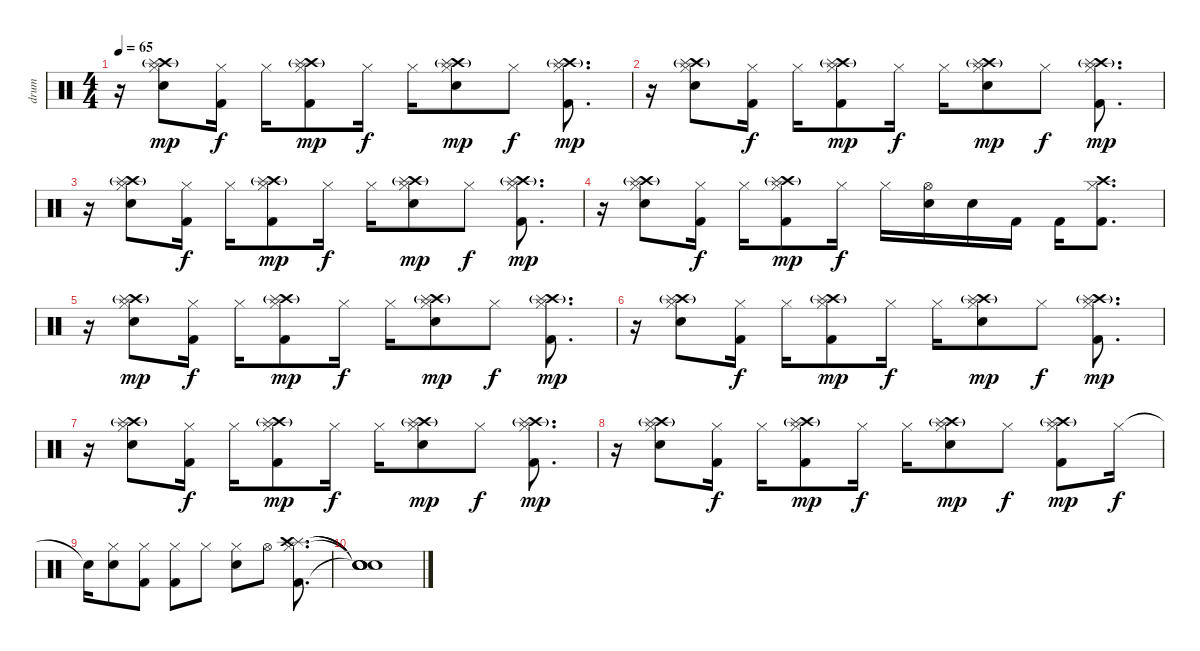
\track ("drum" "drum") {instrument percussion}
\staff {score}
\articulation defaults
\ts (4 4)
\tempo 65
\clef neutral
\ks c
r.16{dy f} ("Crash high (hit)"{g} "Hi-Hat (closed)" "Splash (hit)" "Electric Snare (hit)").8{dy mp} ("Hi-Hat (closed)" "Kick (hit) 2").16{dy f} "Hi-Hat (closed)".16 ("Crash high (hit)"{g} "Hi-Hat (closed)" "Splash (hit)" "Kick (hit) 2").8{dy mp} "Hi-Hat (closed)".16{dy f} "Hi-Hat (closed)".16 ("Crash high (hit)"{g} "Hi-Hat (closed)" "Splash (hit)" "Electric Snare (hit)").8{dy mp} "Hi-Hat (closed)".8{dy f} ("Crash high (hit)"{g} "Hi-Hat (closed)" "Splash (hit)" "Kick (hit) 2").8{d dy mp} |
r.16 ("Crash high (hit)"{g} "Hi-Hat (closed)" "Splash (hit)" "Electric Snare (hit)").8 ("Hi-Hat (closed)" "Kick (hit) 2").16{dy f} "Hi-Hat (closed)".16 ("Crash high (hit)"{g} "Hi-Hat (closed)" "Splash (hit)" "Kick (hit) 2").8{dy mp} "Hi-Hat (closed)".16{dy f} "Hi-Hat (closed)".16 ("Crash high (hit)"{g} "Hi-Hat (closed)" "Splash (hit)" "Electric Snare (hit)").8{dy mp} "Hi-Hat (closed)".8{dy f} ("Crash high (hit)"{g} "Hi-Hat (closed)" "Splash (hit)" "Kick (hit) 2").8{d dy mp} |
r.16 ("Crash high (hit)"{g} "Hi-Hat (closed)" "Splash (hit)" "Electric Snare (hit)").8 ("Hi-Hat (closed)" "Kick (hit) 2").16{dy f} "Hi-Hat (closed)".16 ("Crash high (hit)"{g} "Hi-Hat (closed)" "Splash (hit)" "Kick (hit) 2").8{dy mp} "Hi-Hat (closed)".16{dy f} "Hi-Hat (closed)".16 ("Crash high (hit)"{g} "Hi-Hat (closed)" "Splash (hit)" "Electric Snare (hit)").8{dy mp} "Hi-Hat (closed)".8{dy f} ("Crash high (hit)"{g} "Hi-Hat (closed)" "Splash (hit)" "Kick (hit) 2").8{d dy mp} |
r.16 ("Crash high (hit)"{g} "Hi-Hat (closed)" "Splash (hit)" "Electric Snare (hit)").8 ("Hi-Hat (closed)" "Kick (hit) 2").16{dy f} "Hi-Hat (closed)".16 ("Crash high (hit)"{g} "Hi-Hat (closed)" "Splash (hit)" "Kick (hit) 2").8{dy mp} "Hi-Hat (closed)".16{dy f} "Hi-Hat (closed)".16 ("Hi-Hat (open)" "Electric Snare (hit)").16 "Electric Snare (hit)".16 "Kick (hit) 2".16 "Kick (hit) 2".16 ("Crash high (hit)" "Hi-Hat (closed)" "Kick (hit) 2").8{d} |
r.16 ("Crash high (hit)"{g} "Hi-Hat (closed)" "Splash (hit)" "Electric Snare (hit)").8{dy mp} ("Hi-Hat (closed)" "Kick (hit) 2").16{dy f} "Hi-Hat (closed)".16 ("Crash high (hit)"{g} "Hi-Hat (closed)" "Splash (hit)" "Kick (hit) 2").8{dy mp} "Hi-Hat (closed)".16{dy f} "Hi-Hat (closed)".16 ("Crash high (hit)"{g} "Hi-Hat (closed)" "Splash (hit)" "Electric Snare (hit)").8{dy mp} "Hi-Hat (closed)".8{dy f} ("Crash high (hit)"{g} "Hi-Hat (closed)" "Splash (hit)" "Kick (hit) 2").8{d dy mp} |
r.16 ("Crash high (hit)"{g} "Hi-Hat (closed)" "Splash (hit)" "Electric Snare (hit)").8 ("Hi-Hat (closed)" "Kick (hit) 2").16{dy f} "Hi-Hat (closed)".16 ("Crash high (hit)"{g} "Hi-Hat (closed)" "Splash (hit)" "Kick (hit) 2").8{dy mp} "Hi-Hat (closed)".16{dy f} "Hi-Hat (closed)".16 ("Crash high (hit)"{g} "Hi-Hat (closed)" "Splash (hit)" "Electric Snare (hit)").8{dy mp} "Hi-Hat (closed)".8{dy f} ("Crash high (hit)"{g} "Hi-Hat (closed)" "Splash (hit)" "Kick (hit) 2").8{d dy mp} |
r.16 ("Crash high (hit)"{g} "Hi-Hat (closed)" "Splash (hit)" "Electric Snare (hit)").8 ("Hi-Hat (closed)" "Kick (hit) 2").16{dy f} "Hi-Hat (closed)".16 ("Crash high (hit)"{g} "Hi-Hat (closed)" "Splash (hit)" "Kick (hit) 2").8{dy mp} "Hi-Hat (closed)".16{dy f} "Hi-Hat (closed)".16 ("Crash high (hit)"{g} "Hi-Hat (closed)" "Splash (hit)" "Electric Snare (hit)").8{dy mp} "Hi-Hat (closed)".8{dy f} ("Crash high (hit)"{g} "Hi-Hat (closed)" "Splash (hit)" "Kick (hit) 2").8{d dy mp} |
r.16 ("Crash high (hit)"{g} "Hi-Hat (closed)" "Splash (hit)" "Electric Snare (hit)").8 ("Hi-Hat (closed)" "Kick (hit) 2").16{dy f} "Hi-Hat (closed)".16 ("Crash high (hit)"{g} "Hi-Hat (closed)" "Splash (hit)" "Kick (hit) 2").8{dy mp} "Hi-Hat (closed)".16{dy f} "Hi-Hat (closed)".16 ("Crash high (hit)"{g} "Hi-Hat (closed)" "Splash (hit)" "Electric Snare (hit)").8{dy mp} "Hi-Hat (closed)".8{dy f} ("Crash high (hit)"{g} "Hi-Hat (closed)" "Splash (hit)" "Kick (hit) 2").8{dy mp} "Hi-Hat (closed)".16{dy f} |
"Snare (hit)"{t}.16 ("Hi-Hat (closed)" "Electric Snare (hit)").8 ("Hi-Hat (closed)" "Kick (hit) 2").8 ("Hi-Hat (closed)" "Kick (hit) 2").8 "Hi-Hat (closed)".8 ("Hi-Hat (closed)" "Electric Snare (hit)").8 "Hi-Hat (open)".8 ("Splash (hit)" "Hi-Hat (closed)" "Crash high (hit)" "Kick (hit) 2").8{d} |
("Snare (hit)"{t} "Snare (hit)"{t} "Snare (hit)"{t} "Snare (hit)"{t}).1
